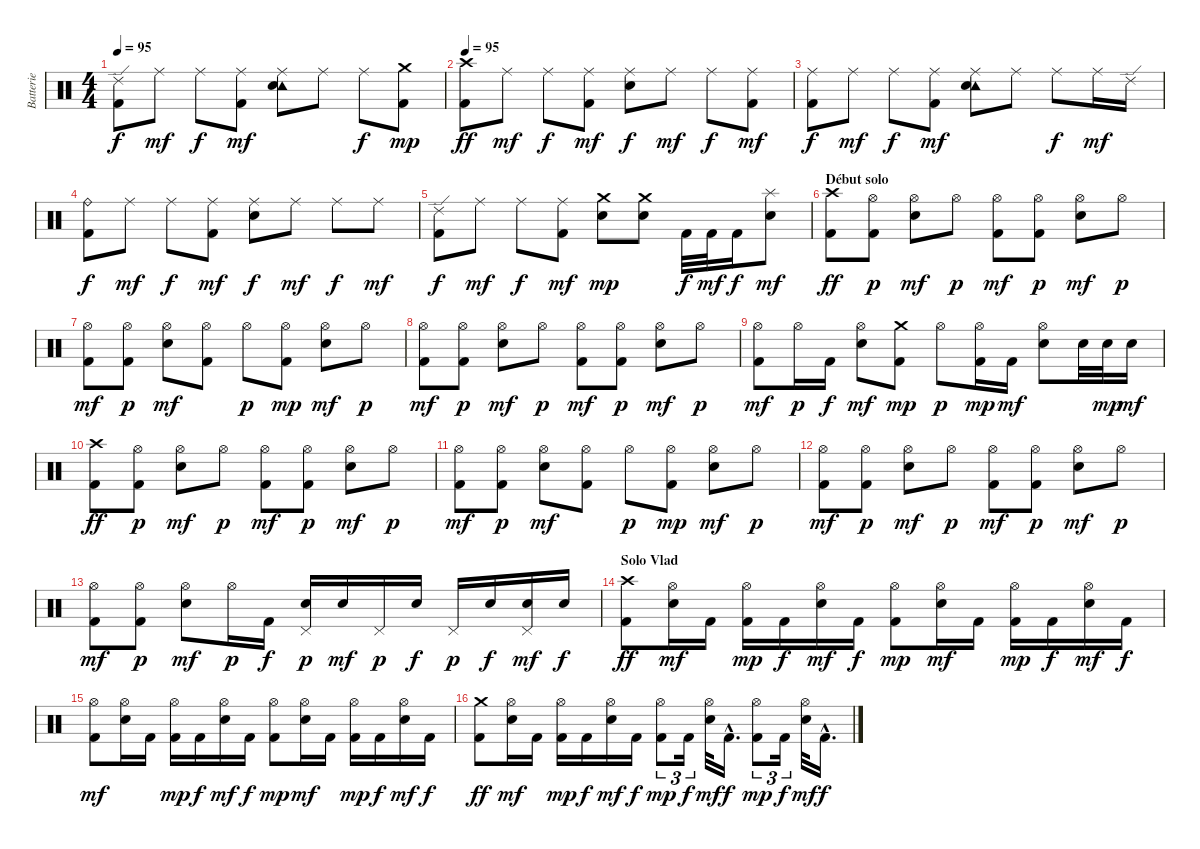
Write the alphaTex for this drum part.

\track ("Batterie" "Batterie") {instrument percussion}
\staff {score}
\articulation defaults
\ts (4 4)
\tempo 95
\clef neutral
\ks c
("Ride (edge) 2" "Kick (hit) 2").8{dy f} "Ride (middle)".8{dy mf} "Ride (middle)".8{dy f} ("Ride (middle)" "Kick (hit) 2").8{dy mf} ("Ride (middle)" "Tambourine (hit)" "Electric Snare (hit)").8 "Ride (middle)".8 "Ride (middle)".8{dy f} ("Crash medium (hit)" "Kick (hit) 2").8{dy mp} |
\tempo 95
("Crash high (hit)" "Kick (hit) 2").8{dy ff} "Ride (middle)".8{dy mf} "Ride (middle)".8{dy f} ("Ride (middle)" "Kick (hit) 2").8{dy mf} ("Ride (middle)" "Electric Snare (hit)").8{dy f} "Ride (middle)".8{dy mf} "Ride (middle)".8{dy f} ("Ride (middle)" "Kick (hit) 2").8{dy mf} |
("Ride (middle)" "Kick (hit) 2").8{dy f} "Ride (middle)".8{dy mf} "Ride (middle)".8{dy f} ("Ride (middle)" "Kick (hit) 2").8{dy mf} ("Ride (middle)" "Tambourine (hit)" "Electric Snare (hit)").8 "Ride (middle)".8 "Ride (middle)".8{dy f} "Ride (middle)".16{dy mf} "Ride (edge) 2".16 |
("Ride (bell)" "Kick (hit) 2").8{dy f} "Ride (middle)".8{dy mf} "Ride (middle)".8{dy f} ("Ride (middle)" "Kick (hit) 2").8{dy mf} ("Ride (middle)" "Electric Snare (hit)").8{dy f} "Ride (middle)".8{dy mf} "Ride (middle)".8{dy f} "Ride (middle)".8{dy mf} |
("Ride (edge) 2" "Kick (hit) 2").8{dy f} "Ride (middle)".8{dy mf} "Ride (middle)".8{dy f} ("Ride (middle)" "Kick (hit) 2").8{dy mf} ("Crash medium (hit)" "Electric Snare (hit)").8{dy mp} ("Crash medium (hit)" "Electric Snare (hit)").8 "Kick (hit) 2".32{dy f} "Kick (hit) 2".32{dy mf} "Kick (hit) 2".16{dy f} ("Splash (hit)" "Electric Snare (hit)").8{dy mf} |
\section ("" "Début solo")
("Crash high (hit)" "Kick (hit) 2").8{dy ff} ("Hi-Hat (open)" "Kick (hit) 2").8{dy p} ("Hi-Hat (open)" "Electric Snare (hit)").8{dy mf} "Hi-Hat (open)".8{dy p} ("Hi-Hat (open)" "Kick (hit) 2").8{dy mf} ("Hi-Hat (open)" "Kick (hit) 2").8{dy p} ("Hi-Hat (open)" "Electric Snare (hit)").8{dy mf} "Hi-Hat (open)".8{dy p} |
("Hi-Hat (open)" "Kick (hit) 2").8{dy mf} ("Hi-Hat (open)" "Kick (hit) 2").8{dy p} ("Hi-Hat (open)" "Electric Snare (hit)").8{dy mf} ("Hi-Hat (open)" "Kick (hit) 2").8 "Hi-Hat (open)".8{dy p} ("Hi-Hat (open)" "Kick (hit) 2").8{dy mp} ("Hi-Hat (open)" "Electric Snare (hit)").8{dy mf} "Hi-Hat (open)".8{dy p} |
("Hi-Hat (open)" "Kick (hit) 2").8{dy mf} ("Hi-Hat (open)" "Kick (hit) 2").8{dy p} ("Hi-Hat (open)" "Electric Snare (hit)").8{dy mf} "Hi-Hat (open)".8{dy p} ("Hi-Hat (open)" "Kick (hit) 2").8{dy mf} ("Hi-Hat (open)" "Kick (hit) 2").8{dy p} ("Hi-Hat (open)" "Electric Snare (hit)").8{dy mf} "Hi-Hat (open)".8{dy p} |
("Hi-Hat (open)" "Kick (hit) 2").8{dy mf} "Hi-Hat (open)".16{dy p} "Kick (hit) 2".16{dy f} ("Hi-Hat (open)" "Electric Snare (hit)").8{dy mf} ("Crash medium (hit)" "Kick (hit) 2").8{dy mp} "Hi-Hat (open)".8{dy p} ("Hi-Hat (open)" "Kick (hit) 2").16{dy mp} "Kick (hit) 2".16{dy mf} ("Hi-Hat (open)" "Electric Snare (hit)").8 "Electric Snare (hit)".32 "Electric Snare (hit)".32{dy mp} "Electric Snare (hit)".16{dy mf} |
("Crash high (hit)" "Kick (hit) 2").8{dy ff} ("Hi-Hat (open)" "Kick (hit) 2").8{dy p} ("Hi-Hat (open)" "Electric Snare (hit)").8{dy mf} "Hi-Hat (open)".8{dy p} ("Hi-Hat (open)" "Kick (hit) 2").8{dy mf} ("Hi-Hat (open)" "Kick (hit) 2").8{dy p} ("Hi-Hat (open)" "Electric Snare (hit)").8{dy mf} "Hi-Hat (open)".8{dy p} |
("Hi-Hat (open)" "Kick (hit) 2").8{dy mf} ("Hi-Hat (open)" "Kick (hit) 2").8{dy p} ("Hi-Hat (open)" "Electric Snare (hit)").8{dy mf} ("Hi-Hat (open)" "Kick (hit) 2").8 "Hi-Hat (open)".8{dy p} ("Hi-Hat (open)" "Kick (hit) 2").8{dy mp} ("Hi-Hat (open)" "Electric Snare (hit)").8{dy mf} "Hi-Hat (open)".8{dy p} |
("Hi-Hat (open)" "Kick (hit) 2").8{dy mf} ("Hi-Hat (open)" "Kick (hit) 2").8{dy p} ("Hi-Hat (open)" "Electric Snare (hit)").8{dy mf} "Hi-Hat (open)".8{dy p} ("Hi-Hat (open)" "Kick (hit) 2").8{dy mf} ("Hi-Hat (open)" "Kick (hit) 2").8{dy p} ("Hi-Hat (open)" "Electric Snare (hit)").8{dy mf} "Hi-Hat (open)".8{dy p} |
("Hi-Hat (open)" "Kick (hit) 2").8{dy mf} ("Hi-Hat (open)" "Kick (hit) 2").8{dy p} ("Hi-Hat (open)" "Electric Snare (hit)").8{dy mf} "Hi-Hat (open)".16{dy p} "Kick (hit) 2".16{dy f} ("Pedal Hi-Hat (hit)" "Electric Snare (hit)").16{dy p} "Electric Snare (hit)".16{dy mf} "Pedal Hi-Hat (hit)".16{dy p} "Electric Snare (hit)".16{dy f} "Pedal Hi-Hat (hit)".16{dy p} "Electric Snare (hit)".16{dy f} ("Pedal Hi-Hat (hit)" "Electric Snare (hit)").16{dy mf} "Electric Snare (hit)".16{dy f} |
\section ("" "Solo Vlad")
("Crash high (hit)" "Kick (hit) 2").8{dy ff} ("Hi-Hat (open)" "Electric Snare (hit)").16{dy mf} "Kick (hit) 2".16 ("Hi-Hat (open)" "Kick (hit) 2").16{dy mp} "Kick (hit) 2".16{dy f} ("Hi-Hat (open)" "Electric Snare (hit)").16{dy mf} "Kick (hit) 2".16{dy f} ("Hi-Hat (open)" "Kick (hit) 2").8{dy mp} ("Hi-Hat (open)" "Electric Snare (hit)").16{dy mf} "Kick (hit) 2".16 ("Hi-Hat (open)" "Kick (hit) 2").16{dy mp} "Kick (hit) 2".16{dy f} ("Hi-Hat (open)" "Electric Snare (hit)").16{dy mf} "Kick (hit) 2".16{dy f} |
("Hi-Hat (open)" "Kick (hit) 2").8{dy mf} ("Hi-Hat (open)" "Electric Snare (hit)").16 "Kick (hit) 2".16 ("Hi-Hat (open)" "Kick (hit) 2").16{dy mp} "Kick (hit) 2".16{dy f} ("Hi-Hat (open)" "Electric Snare (hit)").16{dy mf} "Kick (hit) 2".16{dy f} ("Hi-Hat (open)" "Kick (hit) 2").8{dy mp} ("Hi-Hat (open)" "Electric Snare (hit)").16{dy mf} "Kick (hit) 2".16 ("Hi-Hat (open)" "Kick (hit) 2").16{dy mp} "Kick (hit) 2".16{dy f} ("Hi-Hat (open)" "Electric Snare (hit)").16{dy mf} "Kick (hit) 2".16{dy f} |
("Crash medium (hit)" "Kick (hit) 2").8{dy ff} ("Hi-Hat (open)" "Electric Snare (hit)").16{dy mf} "Kick (hit) 2".16 ("Hi-Hat (open)" "Kick (hit) 2").16{dy mp} "Kick (hit) 2".16{dy f} ("Hi-Hat (open)" "Electric Snare (hit)").16{dy mf} "Kick (hit) 2".16{dy f} ("Hi-Hat (open)" "Kick (hit) 2").8{tu (3 2) dy mp} "Kick (hit) 2".16{tu (3 2) dy f} ("Hi-Hat (open)" "Electric Snare (hit)").32{dy mf} "Kick (hit) 2"{hac}.16{d dy f} ("Hi-Hat (open)" "Kick (hit) 2").8{tu (3 2) dy mp} "Kick (hit) 2".16{tu (3 2) dy f} ("Hi-Hat (open)" "Electric Snare (hit)").32{dy mf} "Kick (hit) 2"{hac}.16{d dy f}
